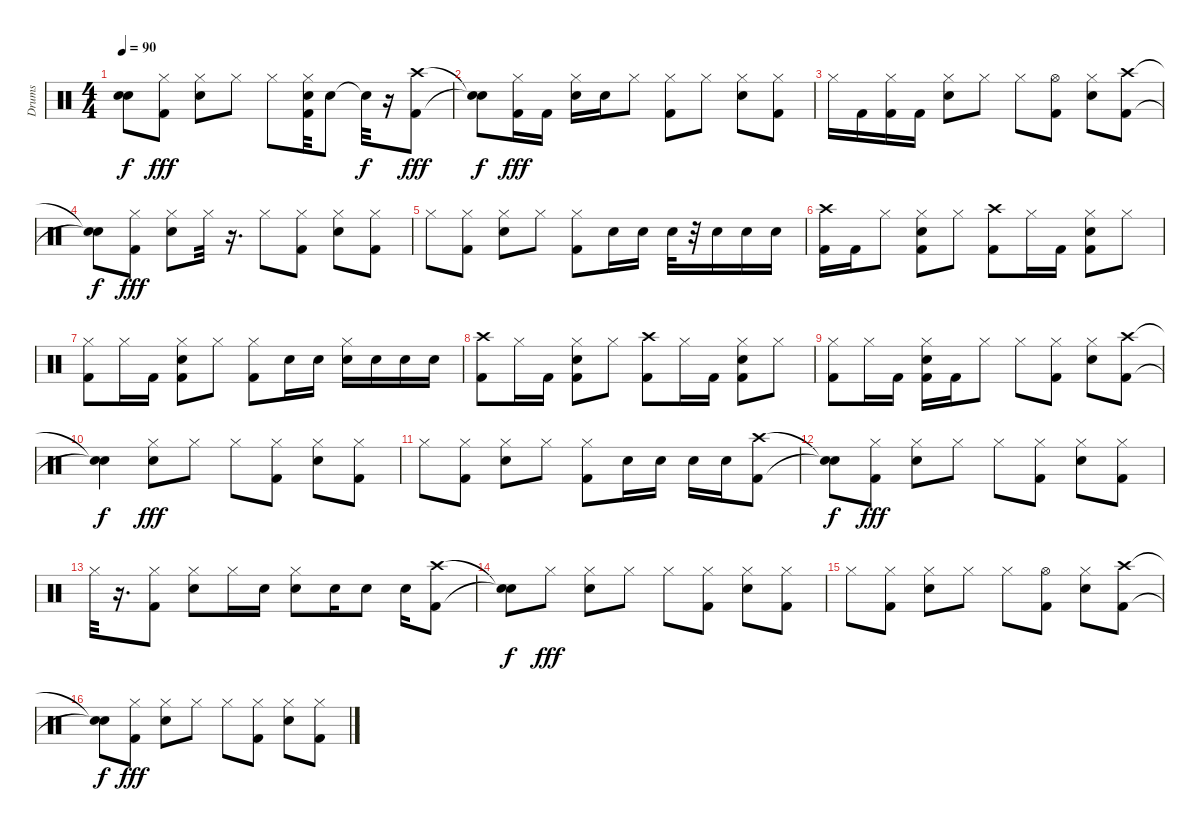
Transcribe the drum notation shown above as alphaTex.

\track ("Drums" "Drums") {instrument percussion}
\staff {score}
\articulation defaults
\ts (4 4)
\tempo 90
\clef neutral
\ks c
("Snare (hit)"{t} "Snare (hit)"{t}).8{dy f} ("Hi-Hat (closed)" "Kick (hit) 2").8{dy fff} ("Hi-Hat (closed)" "Snare (hit) 2").8 "Hi-Hat (closed)".8 "Hi-Hat (closed)".8 ("Snare (hit) 2" "Hi-Hat (closed)" "Kick (hit) 2").32 "Electric Snare (hit)".8 "Snare (hit)"{t}.32{dy f} r.16 ("Crash high (hit)" "Kick (hit) 2").8{dy fff} |
("Snare (hit)"{t} "Snare (hit)"{t}).8{dy f} ("Hi-Hat (closed)" "Kick (hit) 2").16{dy fff} "Kick (hit) 2".16 ("Hi-Hat (closed)" "Snare (hit) 2").16 "Electric Snare (hit)".16 "Hi-Hat (closed)".8 ("Hi-Hat (closed)" "Kick (hit) 2").8 "Hi-Hat (closed)".8 ("Hi-Hat (closed)" "Electric Snare (hit)").8 ("Hi-Hat (closed)" "Kick (hit) 2").8 |
"Hi-Hat (closed)".16 "Kick (hit) 2".16 ("Hi-Hat (closed)" "Kick (hit) 2").16 "Kick (hit) 2".16 ("Hi-Hat (closed)" "Snare (hit) 2").8 "Hi-Hat (closed)".8 "Hi-Hat (closed)".8 ("Kick (hit) 2" "Hi-Hat (open)").8 ("Snare (hit) 2" "Hi-Hat (closed)").8 ("Kick (hit) 2" "Crash high (hit)").8 |
("Snare (hit)"{t} "Snare (hit)"{t}).8{dy f} ("Hi-Hat (closed)" "Kick (hit) 2").8{dy fff} ("Snare (hit) 2" "Hi-Hat (closed)").8 "Hi-Hat (closed)".32 r.16{d} "Hi-Hat (closed)".8 ("Kick (hit) 2" "Hi-Hat (closed)").8 ("Electric Snare (hit)" "Hi-Hat (closed)").8 ("Kick (hit) 2" "Hi-Hat (closed)").8 |
"Hi-Hat (closed)".8 ("Hi-Hat (closed)" "Kick (hit) 2").8 ("Hi-Hat (closed)" "Snare (hit) 2").8 "Hi-Hat (closed)".8 ("Hi-Hat (closed)" "Kick (hit) 2").8 "Electric Snare (hit)".16 "Snare (hit) 2".16 "Snare (hit) 2".32 r.32 "Snare (hit) 2".16 "Snare (hit) 2".16 "Snare (hit) 2".16 |
("Kick (hit) 2" "Crash high (hit)").16 "Kick (hit) 2".16 "Hi-Hat (closed)".8 ("Electric Snare (hit)" "Hi-Hat (closed)" "Kick (hit) 2").8 "Hi-Hat (closed)".8 ("Kick (hit) 2" "Crash high (hit)").8 "Hi-Hat (closed)".16 "Kick (hit) 2".16 ("Kick (hit) 2" "Hi-Hat (closed)" "Snare (hit) 2").8 "Hi-Hat (closed)".8 |
("Kick (hit) 2" "Hi-Hat (closed)").8 "Hi-Hat (closed)".16 "Kick (hit) 2".16 ("Kick (hit) 2" "Electric Snare (hit)" "Hi-Hat (closed)").8 "Hi-Hat (closed)".8 ("Kick (hit) 2" "Hi-Hat (closed)").8 "Snare (hit) 2".16 "Snare (hit) 2".16 ("Hi-Hat (closed)" "Snare (hit) 2").16 "Snare (hit) 2".16 "Electric Snare (hit)".16 "Electric Snare (hit)".16 |
("Kick (hit) 2" "Crash high (hit)").8 "Hi-Hat (closed)".16 "Kick (hit) 2".16 ("Electric Snare (hit)" "Hi-Hat (closed)" "Kick (hit) 2").8 "Hi-Hat (closed)".8 ("Kick (hit) 2" "Crash high (hit)").8 "Hi-Hat (closed)".16 "Kick (hit) 2".16 ("Kick (hit) 2" "Hi-Hat (closed)" "Snare (hit) 2").8 "Hi-Hat (closed)".8 |
("Kick (hit) 2" "Hi-Hat (closed)").8 "Hi-Hat (closed)".16 "Kick (hit) 2".16 ("Kick (hit) 2" "Hi-Hat (closed)" "Electric Snare (hit)").16 "Kick (hit) 2".16 "Hi-Hat (closed)".8 "Hi-Hat (closed)".8 ("Kick (hit) 2" "Hi-Hat (closed)").8 ("Hi-Hat (closed)" "Snare (hit) 2").8 ("Kick (hit) 2" "Crash high (hit)").8 |
("Snare (hit)"{t} "Snare (hit)"{t}).4{dy f} ("Hi-Hat (closed)" "Electric Snare (hit)").8{dy fff} "Hi-Hat (closed)".8 "Hi-Hat (closed)".8 ("Kick (hit) 2" "Hi-Hat (closed)").8 ("Hi-Hat (closed)" "Snare (hit) 2").8 ("Hi-Hat (closed)" "Kick (hit) 2").8 |
"Hi-Hat (closed)".8 ("Kick (hit) 2" "Hi-Hat (closed)").8 ("Hi-Hat (closed)" "Snare (hit) 2").8 "Hi-Hat (closed)".8 ("Hi-Hat (closed)" "Kick (hit) 2").8 "Snare (hit) 2".16 "Electric Snare (hit)".16 "Snare (hit) 2".16 "Snare (hit) 2".16 ("Kick (hit) 2" "Crash high (hit)").8 |
("Snare (hit)"{t} "Snare (hit)"{t}).8{dy f} ("Kick (hit) 2" "Hi-Hat (closed)").8{dy fff} ("Hi-Hat (closed)" "Snare (hit) 2").8 "Hi-Hat (closed)".8 "Hi-Hat (closed)".8 ("Kick (hit) 2" "Hi-Hat (closed)").8 ("Electric Snare (hit)" "Hi-Hat (closed)").8 ("Kick (hit) 2" "Hi-Hat (closed)").8 |
"Hi-Hat (closed)".32 r.16{d} ("Hi-Hat (closed)" "Kick (hit) 2").8 ("Snare (hit) 2" "Hi-Hat (closed)").8 "Hi-Hat (closed)".16 "Snare (hit) 2".16 ("Hi-Hat (closed)" "Snare (hit) 2").8 "Electric Snare (hit)".16 "Snare (hit) 2".8 "Snare (hit) 2".16 ("Crash high (hit)" "Kick (hit) 2").8 |
("Snare (hit)"{t} "Snare (hit)"{t}).8{dy f} "Hi-Hat (closed)".8{dy fff} ("Hi-Hat (closed)" "Snare (hit) 2").8 "Hi-Hat (closed)".8 "Hi-Hat (closed)".8 ("Kick (hit) 2" "Hi-Hat (closed)").8 ("Snare (hit) 2" "Hi-Hat (closed)").8 ("Hi-Hat (closed)" "Kick (hit) 2").8 |
"Hi-Hat (closed)".8 ("Hi-Hat (closed)" "Kick (hit) 2").8 ("Hi-Hat (closed)" "Snare (hit) 2").8 "Hi-Hat (closed)".8 "Hi-Hat (closed)".8 ("Hi-Hat (open)" "Kick (hit) 2").8 ("Hi-Hat (closed)" "Snare (hit) 2").8 ("Crash high (hit)" "Kick (hit) 2").8 |
("Snare (hit)"{t} "Snare (hit)"{t}).8{dy f} ("Kick (hit) 2" "Hi-Hat (closed)").8{dy fff} ("Hi-Hat (closed)" "Snare (hit) 2").8 "Hi-Hat (closed)".8 "Hi-Hat (closed)".8 ("Hi-Hat (closed)" "Kick (hit) 2").8 ("Hi-Hat (closed)" "Snare (hit) 2").8 ("Hi-Hat (closed)" "Kick (hit) 2").8
